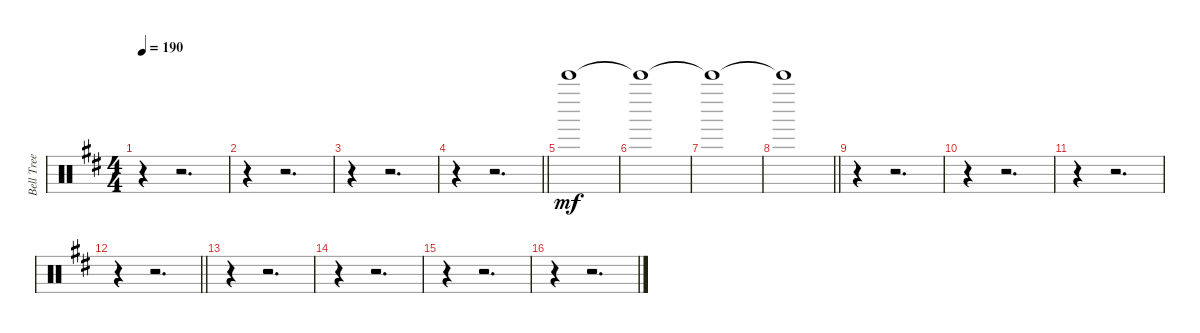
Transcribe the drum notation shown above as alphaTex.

\track ("Bell Tree" "Bell Tree") {instrument percussion}
\staff {score}
\articulation defaults
\ts (4 4)
\tempo 190
\clef neutral
\ks d
r.4{dy mf} r.2{d} |
r.4 r.2{d} |
r.4 r.2{d} |
\barLineRight lightlight
r.4 r.2{d} |
\section ("" "")
"Bell Tree (hit)".1 |
"Bell Tree (hit)"{t}.1 |
"Bell Tree (hit)"{t}.1 |
\barLineRight lightlight "Bell Tree (hit)"{t}.1
|
\section ("" "")
r.4 r.2{d} |
r.4 r.2{d} |
r.4 r.2{d} |
\barLineRight lightlight
r.4 r.2{d} |
\section ("" "")
r.4 r.2{d} |
r.4 r.2{d} |
r.4 r.2{d} |
r.4 r.2{d}
